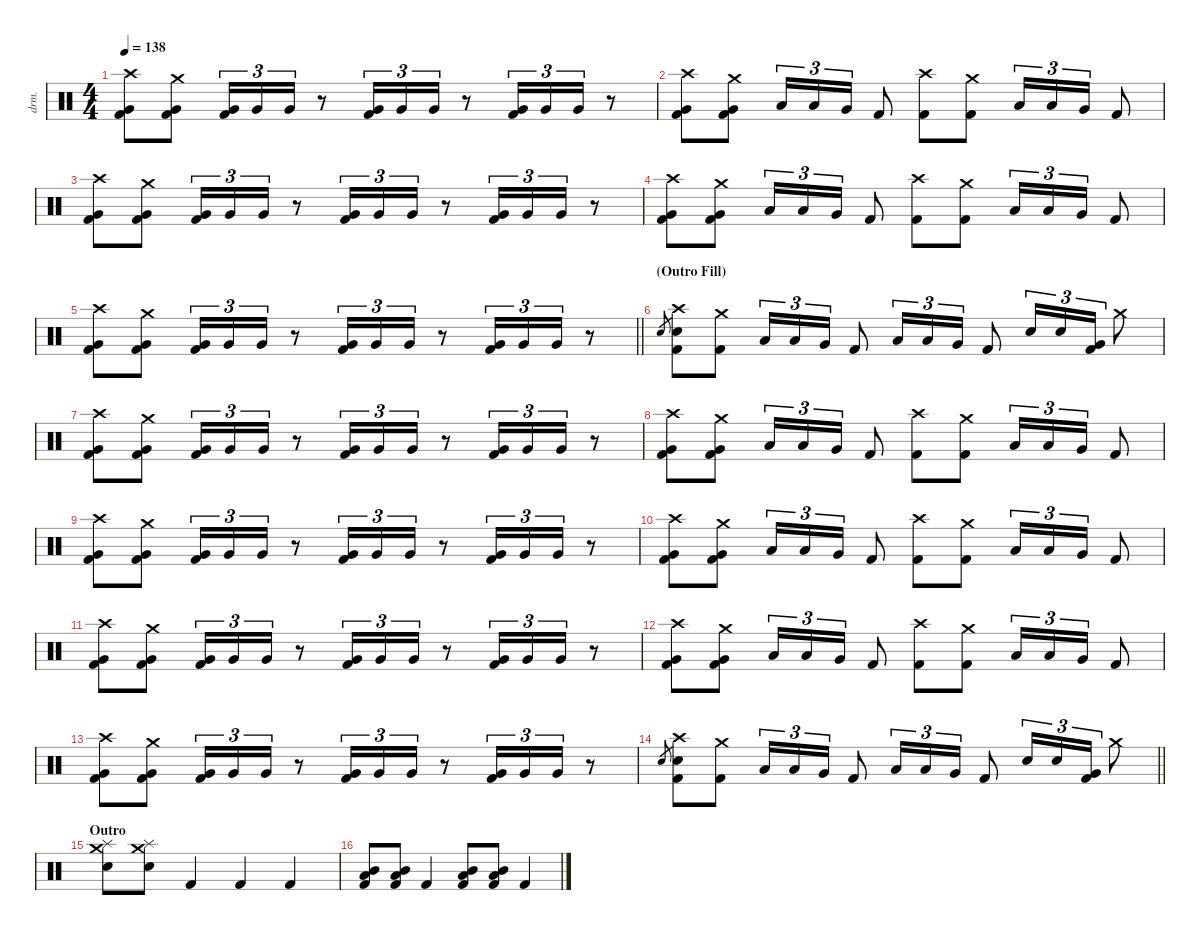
\defaultSystemsLayout 4
\hideDynamics
\bracketExtendMode nobrackets
\otherSystemsTrackNameOrientation horizontal
\track ("Lee Kerslake" "drm.") {instrument percussion}
\staff {score}
\articulation defaults
\ts (4 4)
\tempo 138
\clef neutral
\ks c
("Very Low Tom (hit)" "Crash high (hit)" "Kick (hit) 2").8{dy f beam Down} ("Very Low Tom (hit)" "Crash medium (hit)" "Kick (hit) 2").8{beam Down} ("Very Low Tom (hit)" "Kick (hit) 2").16{tu (3 2) beam Up} "Very Low Tom (hit)".16{tu (3 2) beam Up} "Very Low Tom (hit)".16{tu (3 2) beam Up} r.8{beam Up} ("Very Low Tom (hit)" "Kick (hit) 2").16{tu (3 2) beam Up} "Very Low Tom (hit)".16{tu (3 2) beam Up} "Very Low Tom (hit)".16{tu (3 2) beam Up} r.8{beam Up} ("Very Low Tom (hit)" "Kick (hit) 2").16{tu (3 2) beam Up} "Very Low Tom (hit)".16{tu (3 2) beam Up} "Very Low Tom (hit)".16{tu (3 2) beam Up} r.8{beam Up} |
("Very Low Tom (hit)" "Crash high (hit)" "Kick (hit) 2").8{beam Down} ("Very Low Tom (hit)" "Crash medium (hit)" "Kick (hit) 2").8{beam Down} "Low Tom (hit)".16{tu (3 2) beam Up} "Low Tom (hit)".16{tu (3 2) beam Up} "Very Low Tom (hit)".16{tu (3 2) beam Up} "Kick (hit) 2".8{beam Up} ("Crash high (hit)" "Kick (hit) 2").8{beam Down} ("Crash medium (hit)" "Kick (hit) 2").8{beam Down} "Low Tom (hit)".16{tu (3 2) beam Up} "Low Tom (hit)".16{tu (3 2) beam Up} "Very Low Tom (hit)".16{tu (3 2) beam Up} "Kick (hit) 2".8{beam Up} |
("Very Low Tom (hit)" "Crash high (hit)" "Kick (hit) 2").8{beam Down} ("Very Low Tom (hit)" "Crash medium (hit)" "Kick (hit) 2").8{beam Down} ("Very Low Tom (hit)" "Kick (hit) 2").16{tu (3 2) beam Up} "Very Low Tom (hit)".16{tu (3 2) beam Up} "Very Low Tom (hit)".16{tu (3 2) beam Up} r.8{beam Up} ("Very Low Tom (hit)" "Kick (hit) 2").16{tu (3 2) beam Up} "Very Low Tom (hit)".16{tu (3 2) beam Up} "Very Low Tom (hit)".16{tu (3 2) beam Up} r.8{beam Up} ("Very Low Tom (hit)" "Kick (hit) 2").16{tu (3 2) beam Up} "Very Low Tom (hit)".16{tu (3 2) beam Up} "Very Low Tom (hit)".16{tu (3 2) beam Up} r.8{beam Up} |
("Very Low Tom (hit)" "Crash high (hit)" "Kick (hit) 2").8{beam Down} ("Very Low Tom (hit)" "Crash medium (hit)" "Kick (hit) 2").8{beam Down} "Low Tom (hit)".16{tu (3 2) beam Up} "Low Tom (hit)".16{tu (3 2) beam Up} "Very Low Tom (hit)".16{tu (3 2) beam Up} "Kick (hit) 2".8{beam Up} ("Crash high (hit)" "Kick (hit) 2").8{beam Down} ("Crash medium (hit)" "Kick (hit) 2").8{beam Down} "Low Tom (hit)".16{tu (3 2) beam Up} "Low Tom (hit)".16{tu (3 2) beam Up} "Very Low Tom (hit)".16{tu (3 2) beam Up} "Kick (hit) 2".8{beam Up} |
\barLineRight lightlight
("Very Low Tom (hit)" "Crash high (hit)" "Kick (hit) 2").8{beam Down} ("Very Low Tom (hit)" "Crash medium (hit)" "Kick (hit) 2").8{beam Down} ("Very Low Tom (hit)" "Kick (hit) 2").16{tu (3 2) beam Up} "Very Low Tom (hit)".16{tu (3 2) beam Up} "Very Low Tom (hit)".16{tu (3 2) beam Up} r.8{beam Up} ("Very Low Tom (hit)" "Kick (hit) 2").16{tu (3 2) beam Up} "Very Low Tom (hit)".16{tu (3 2) beam Up} "Very Low Tom (hit)".16{tu (3 2) beam Up} r.8{beam Up} ("Very Low Tom (hit)" "Kick (hit) 2").16{tu (3 2) beam Up} "Very Low Tom (hit)".16{tu (3 2) beam Up} "Very Low Tom (hit)".16{tu (3 2) beam Up} r.8{beam Up} |
\section ("" "(Outro Fill)")
"Snare (hit) 2".8{gr dy mf beam Up} ("Snare (hit) 2" "Crash high (hit)" "Kick (hit) 2").8{dy f beam Down} ("Crash medium (hit)" "Kick (hit) 2").8{beam Down} "Low Tom (hit)".16{tu (3 2) beam Up} "Low Tom (hit)".16{tu (3 2) beam Up} "Very Low Tom (hit)".16{tu (3 2) beam Up} "Kick (hit) 2".8{beam Up} "Low Tom (hit)".16{tu (3 2) beam Up} "Low Tom (hit)".16{tu (3 2) beam Up} "Very Low Tom (hit)".16{tu (3 2) beam Up} "Kick (hit) 2".8{beam Up} "Snare (hit) 2".16{tu (3 2) beam Up} "Snare (hit) 2".16{tu (3 2) beam Up} ("Very Low Tom (hit)" "Kick (hit) 2").16{tu (3 2) beam Up} "Crash medium (hit)".8{beam Down} |
("Very Low Tom (hit)" "Crash high (hit)" "Kick (hit) 2").8{beam Down} ("Very Low Tom (hit)" "Crash medium (hit)" "Kick (hit) 2").8{beam Down} ("Very Low Tom (hit)" "Kick (hit) 2").16{tu (3 2) beam Up} "Very Low Tom (hit)".16{tu (3 2) beam Up} "Very Low Tom (hit)".16{tu (3 2) beam Up} r.8{beam Up} ("Very Low Tom (hit)" "Kick (hit) 2").16{tu (3 2) beam Up} "Very Low Tom (hit)".16{tu (3 2) beam Up} "Very Low Tom (hit)".16{tu (3 2) beam Up} r.8{beam Up} ("Very Low Tom (hit)" "Kick (hit) 2").16{tu (3 2) beam Up} "Very Low Tom (hit)".16{tu (3 2) beam Up} "Very Low Tom (hit)".16{tu (3 2) beam Up} r.8{beam Up} |
("Very Low Tom (hit)" "Crash high (hit)" "Kick (hit) 2").8{beam Down} ("Very Low Tom (hit)" "Crash medium (hit)" "Kick (hit) 2").8{beam Down} "Low Tom (hit)".16{tu (3 2) beam Up} "Low Tom (hit)".16{tu (3 2) beam Up} "Very Low Tom (hit)".16{tu (3 2) beam Up} "Kick (hit) 2".8{beam Up} ("Crash high (hit)" "Kick (hit) 2").8{beam Down} ("Crash medium (hit)" "Kick (hit) 2").8{beam Down} "Low Tom (hit)".16{tu (3 2) beam Up} "Low Tom (hit)".16{tu (3 2) beam Up} "Very Low Tom (hit)".16{tu (3 2) beam Up} "Kick (hit) 2".8{beam Up} |
("Very Low Tom (hit)" "Crash high (hit)" "Kick (hit) 2").8{beam Down} ("Very Low Tom (hit)" "Crash medium (hit)" "Kick (hit) 2").8{beam Down} ("Very Low Tom (hit)" "Kick (hit) 2").16{tu (3 2) beam Up} "Very Low Tom (hit)".16{tu (3 2) beam Up} "Very Low Tom (hit)".16{tu (3 2) beam Up} r.8{beam Up} ("Very Low Tom (hit)" "Kick (hit) 2").16{tu (3 2) beam Up} "Very Low Tom (hit)".16{tu (3 2) beam Up} "Very Low Tom (hit)".16{tu (3 2) beam Up} r.8{beam Up} ("Very Low Tom (hit)" "Kick (hit) 2").16{tu (3 2) beam Up} "Very Low Tom (hit)".16{tu (3 2) beam Up} "Very Low Tom (hit)".16{tu (3 2) beam Up} r.8{beam Up} |
("Very Low Tom (hit)" "Crash high (hit)" "Kick (hit) 2").8{beam Down} ("Very Low Tom (hit)" "Crash medium (hit)" "Kick (hit) 2").8{beam Down} "Low Tom (hit)".16{tu (3 2) beam Up} "Low Tom (hit)".16{tu (3 2) beam Up} "Very Low Tom (hit)".16{tu (3 2) beam Up} "Kick (hit) 2".8{beam Up} ("Crash high (hit)" "Kick (hit) 2").8{beam Down} ("Crash medium (hit)" "Kick (hit) 2").8{beam Down} "Low Tom (hit)".16{tu (3 2) beam Up} "Low Tom (hit)".16{tu (3 2) beam Up} "Very Low Tom (hit)".16{tu (3 2) beam Up} "Kick (hit) 2".8{beam Up} |
("Very Low Tom (hit)" "Crash high (hit)" "Kick (hit) 2").8{beam Down} ("Very Low Tom (hit)" "Crash medium (hit)" "Kick (hit) 2").8{beam Down} ("Very Low Tom (hit)" "Kick (hit) 2").16{tu (3 2) beam Up} "Very Low Tom (hit)".16{tu (3 2) beam Up} "Very Low Tom (hit)".16{tu (3 2) beam Up} r.8{beam Up} ("Very Low Tom (hit)" "Kick (hit) 2").16{tu (3 2) beam Up} "Very Low Tom (hit)".16{tu (3 2) beam Up} "Very Low Tom (hit)".16{tu (3 2) beam Up} r.8{beam Up} ("Very Low Tom (hit)" "Kick (hit) 2").16{tu (3 2) beam Up} "Very Low Tom (hit)".16{tu (3 2) beam Up} "Very Low Tom (hit)".16{tu (3 2) beam Up} r.8{beam Up} |
("Very Low Tom (hit)" "Crash high (hit)" "Kick (hit) 2").8{beam Down} ("Very Low Tom (hit)" "Crash medium (hit)" "Kick (hit) 2").8{beam Down} "Low Tom (hit)".16{tu (3 2) beam Up} "Low Tom (hit)".16{tu (3 2) beam Up} "Very Low Tom (hit)".16{tu (3 2) beam Up} "Kick (hit) 2".8{beam Up} ("Crash high (hit)" "Kick (hit) 2").8{beam Down} ("Crash medium (hit)" "Kick (hit) 2").8{beam Down} "Low Tom (hit)".16{tu (3 2) beam Up} "Low Tom (hit)".16{tu (3 2) beam Up} "Very Low Tom (hit)".16{tu (3 2) beam Up} "Kick (hit) 2".8{beam Up} |
("Very Low Tom (hit)" "Crash high (hit)" "Kick (hit) 2").8{beam Down} ("Very Low Tom (hit)" "Crash medium (hit)" "Kick (hit) 2").8{beam Down} ("Very Low Tom (hit)" "Kick (hit) 2").16{tu (3 2) beam Up} "Very Low Tom (hit)".16{tu (3 2) beam Up} "Very Low Tom (hit)".16{tu (3 2) beam Up} r.8{beam Up} ("Very Low Tom (hit)" "Kick (hit) 2").16{tu (3 2) beam Up} "Very Low Tom (hit)".16{tu (3 2) beam Up} "Very Low Tom (hit)".16{tu (3 2) beam Up} r.8{beam Up} ("Very Low Tom (hit)" "Kick (hit) 2").16{tu (3 2) beam Up} "Very Low Tom (hit)".16{tu (3 2) beam Up} "Very Low Tom (hit)".16{tu (3 2) beam Up} r.8{beam Up} |
\barLineRight lightlight "Snare (hit) 2".8{gr dy mf beam Up}
("Snare (hit) 2" "Crash high (hit)" "Kick (hit) 2").8{dy f beam Down} ("Crash medium (hit)" "Kick (hit) 2").8{beam Down} "Low Tom (hit)".16{tu (3 2) beam Up} "Low Tom (hit)".16{tu (3 2) beam Up} "Very Low Tom (hit)".16{tu (3 2) beam Up} "Kick (hit) 2".8{beam Up} "Low Tom (hit)".16{tu (3 2) beam Up} "Low Tom (hit)".16{tu (3 2) beam Up} "Very Low Tom (hit)".16{tu (3 2) beam Up} "Kick (hit) 2".8{beam Up} "Snare (hit) 2".16{tu (3 2) beam Up} "Snare (hit) 2".16{tu (3 2) beam Up} ("Very Low Tom (hit)" "Kick (hit) 2").16{tu (3 2) beam Up} "Crash medium (hit)".8{beam Down} |
\section ("" "Outro")
("Snare (hit) 2" "Crash medium (hit)" "Splash (hit)").8{beam Down} ("Snare (hit) 2" "Crash medium (hit)" "Splash (hit)").8{beam Down} "Kick (hit) 2".4{beam Up} "Kick (hit) 2".4{beam Up} "Kick (hit) 2".4{beam Up} |
("Mid Tom (hit)" "Low Tom (hit)" "Kick (hit) 2").8{beam Up} ("Mid Tom (hit)" "Low Tom (hit)" "Kick (hit) 2").8{beam Up} "Kick (hit) 2".4{beam Up} ("Mid Tom (hit)" "Low Tom (hit)" "Kick (hit) 2").8{beam Up} ("Mid Tom (hit)" "Low Tom (hit)" "Kick (hit) 2").8{beam Up} "Kick (hit) 2".4{beam Up}
